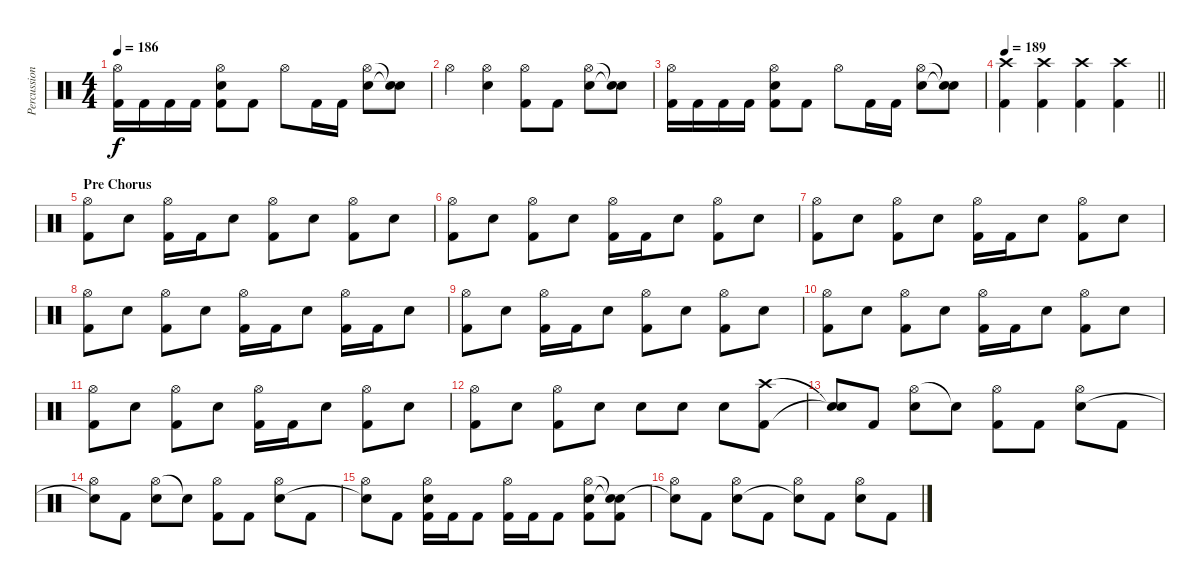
\track ("Percussion" "Percussion") {instrument percussion}
\staff {score}
\articulation defaults
\ts (4 4)
\tempo 186
\clef neutral
\ks c
("Hi-Hat (open)" "Kick (hit) 2").16{dy f} "Kick (hit) 2".16 "Kick (hit) 2".16 "Kick (hit) 2".16 ("Hi-Hat (open)" "Electric Snare (hit)" "Kick (hit) 2").8 "Kick (hit) 2".8 "Hi-Hat (open)".8 "Kick (hit) 2".16 "Kick (hit) 2".16 ("Hi-Hat (open)" "Electric Snare (hit)").8 ("Snare (hit)"{t} "Snare (hit)"{t}).8 |
"Hi-Hat (open)".4 ("Hi-Hat (open)" "Electric Snare (hit)").4 ("Hi-Hat (open)" "Kick (hit) 2").8 "Kick (hit) 2".8 ("Hi-Hat (open)" "Electric Snare (hit)").8 ("Snare (hit)"{t} "Snare (hit)"{t}).8 |
("Hi-Hat (open)" "Kick (hit) 2").16 "Kick (hit) 2".16 "Kick (hit) 2".16 "Kick (hit) 2".16 ("Hi-Hat (open)" "Electric Snare (hit)" "Kick (hit) 2").8 "Kick (hit) 2".8 "Hi-Hat (open)".8 "Kick (hit) 2".16 "Kick (hit) 2".16 ("Hi-Hat (open)" "Electric Snare (hit)").8 ("Snare (hit)"{t} "Snare (hit)"{t}).8 |
\tempo 189
\barLineRight lightlight
("Crash high (hit)" "Kick (hit) 2").4 ("Crash high (hit)" "Kick (hit) 2").4 ("Crash high (hit)" "Kick (hit) 2").4 ("Crash high (hit)" "Kick (hit) 2").4 |
\section ("" "Pre Chorus")
("Hi-Hat (open)" "Kick (hit) 2").8 "Electric Snare (hit)".8 ("Hi-Hat (open)" "Kick (hit) 2").16 "Kick (hit) 2".16 "Electric Snare (hit)".8 ("Hi-Hat (open)" "Kick (hit) 2").8 "Electric Snare (hit)".8 ("Hi-Hat (open)" "Kick (hit) 2").8 "Electric Snare (hit)".8 |
("Hi-Hat (open)" "Kick (hit) 2").8 "Electric Snare (hit)".8 ("Hi-Hat (open)" "Kick (hit) 2").8 "Electric Snare (hit)".8 ("Hi-Hat (open)" "Kick (hit) 2").16 "Kick (hit) 2".16 "Electric Snare (hit)".8 ("Hi-Hat (open)" "Kick (hit) 2").8 "Electric Snare (hit)".8 |
("Hi-Hat (open)" "Kick (hit) 2").8 "Electric Snare (hit)".8 ("Hi-Hat (open)" "Kick (hit) 2").8 "Electric Snare (hit)".8 ("Hi-Hat (open)" "Kick (hit) 2").16 "Kick (hit) 2".16 "Electric Snare (hit)".8 ("Hi-Hat (open)" "Kick (hit) 2").8 "Electric Snare (hit)".8 |
("Hi-Hat (open)" "Kick (hit) 2").8 "Electric Snare (hit)".8 ("Hi-Hat (open)" "Kick (hit) 2").8 "Electric Snare (hit)".8 ("Hi-Hat (open)" "Kick (hit) 2").16 "Kick (hit) 2".16 "Electric Snare (hit)".8 ("Hi-Hat (open)" "Kick (hit) 2").16 "Kick (hit) 2".16 "Electric Snare (hit)".8 |
("Hi-Hat (open)" "Kick (hit) 2").8 "Electric Snare (hit)".8 ("Hi-Hat (open)" "Kick (hit) 2").16 "Kick (hit) 2".16 "Electric Snare (hit)".8 ("Hi-Hat (open)" "Kick (hit) 2").8 "Electric Snare (hit)".8 ("Hi-Hat (open)" "Kick (hit) 2").8 "Electric Snare (hit)".8 |
("Hi-Hat (open)" "Kick (hit) 2").8 "Electric Snare (hit)".8 ("Hi-Hat (open)" "Kick (hit) 2").8 "Electric Snare (hit)".8 ("Hi-Hat (open)" "Kick (hit) 2").16 "Kick (hit) 2".16 "Electric Snare (hit)".8 ("Hi-Hat (open)" "Kick (hit) 2").8 "Electric Snare (hit)".8 |
("Hi-Hat (open)" "Kick (hit) 2").8 "Electric Snare (hit)".8 ("Hi-Hat (open)" "Kick (hit) 2").8 "Electric Snare (hit)".8 ("Hi-Hat (open)" "Kick (hit) 2").16 "Kick (hit) 2".16 "Electric Snare (hit)".8 ("Hi-Hat (open)" "Kick (hit) 2").8 "Electric Snare (hit)".8 |
("Hi-Hat (open)" "Kick (hit) 2").8 "Electric Snare (hit)".8 ("Hi-Hat (open)" "Kick (hit) 2").8 "Electric Snare (hit)".8 "Electric Snare (hit)".8 "Electric Snare (hit)".8 "Electric Snare (hit)".8 ("Crash high (hit)" "Kick (hit) 2").8 |
("Snare (hit)"{t} "Snare (hit)"{t}).8 "Kick (hit) 2".8 ("Hi-Hat (open)" "Electric Snare (hit)").8 "Snare (hit)"{t}.8 ("Hi-Hat (open)" "Kick (hit) 2").8 "Kick (hit) 2".8 ("Hi-Hat (open)" "Electric Snare (hit)").8 "Kick (hit) 2".8 |
("Hi-Hat (open)" "Snare (hit)"{t}).8 "Kick (hit) 2".8 ("Hi-Hat (open)" "Electric Snare (hit)").8 "Snare (hit)"{t}.8 ("Hi-Hat (open)" "Kick (hit) 2").8 "Kick (hit) 2".8 ("Hi-Hat (open)" "Electric Snare (hit)").8 "Kick (hit) 2".8 |
("Hi-Hat (open)" "Snare (hit)"{t}).8 "Kick (hit) 2".8 ("Hi-Hat (open)" "Electric Snare (hit)" "Kick (hit) 2").16 "Kick (hit) 2".16 "Kick (hit) 2".8 ("Hi-Hat (open)" "Kick (hit) 2").16 "Kick (hit) 2".16 "Kick (hit) 2".8 ("Hi-Hat (open)" "Electric Snare (hit)" "Kick (hit) 2").8 ("Snare (hit)"{t} "Snare (hit)"{t} "Kick (hit) 2").8 |
("Hi-Hat (open)" "Snare (hit)"{t}).8 "Kick (hit) 2".8 ("Hi-Hat (open)" "Electric Snare (hit)").8 "Kick (hit) 2".8 ("Hi-Hat (open)" "Snare (hit)"{t}).8 "Kick (hit) 2".8 ("Hi-Hat (open)" "Electric Snare (hit)").8 "Kick (hit) 2".8
